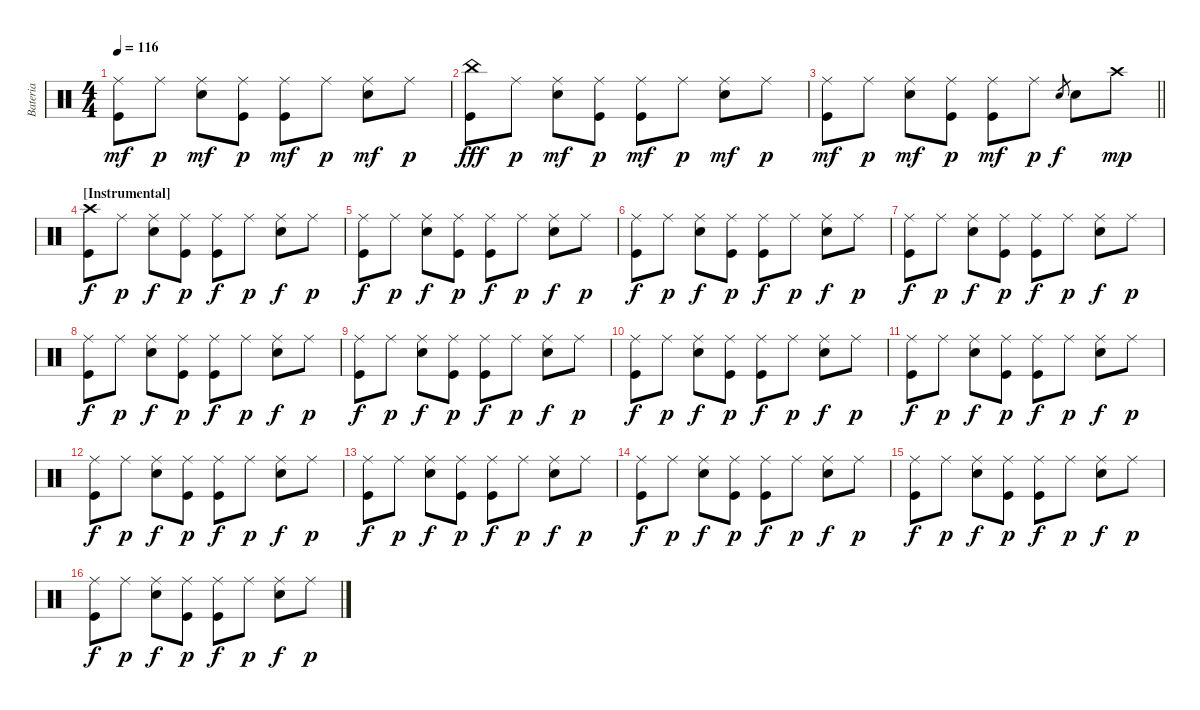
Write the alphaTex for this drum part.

\track ("Bateria" "Bateria") {instrument percussion}
\staff {score}
\articulation defaults
\ts (4 4)
\tempo 116
\clef neutral
\ks c
("Ride (middle)" "Kick (hit)").8{dy mf} "Ride (middle)".8{dy p} ("Ride (middle)" "Snare (hit) 2").8{dy mf} ("Ride (middle)" "Kick (hit)").8{dy p} ("Ride (middle)" "Kick (hit)").8{dy mf} "Ride (middle)".8{dy p} ("Ride (middle)" "Snare (hit) 2").8{dy mf} "Ride (middle)".8{dy p} |
("China (hit)" "Kick (hit)").8{dy fff} "Ride (middle)".8{dy p} ("Ride (middle)" "Snare (hit) 2").8{dy mf} ("Ride (middle)" "Kick (hit)").8{dy p} ("Ride (middle)" "Kick (hit)").8{dy mf} "Ride (middle)".8{dy p} ("Ride (middle)" "Snare (hit) 2").8{dy mf} "Ride (middle)".8{dy p} |
\barLineRight lightlight
("Ride (middle)" "Kick (hit)").8{dy mf} "Ride (middle)".8{dy p} ("Ride (middle)" "Snare (hit) 2").8{dy mf} ("Ride (middle)" "Kick (hit)").8{dy p} ("Ride (middle)" "Kick (hit)").8{dy mf} "Ride (middle)".8{dy p} "Snare (hit) 2".8{gr dy f} "Snare (hit) 2".8 "Crash high (hit)".8{dy mp} |
\section ("" "[Instrumental]")
("Crash high (hit)" "Kick (hit)").8{dy f} "Ride (middle)".8{dy p} ("Ride (middle)" "Snare (hit) 2").8{dy f} ("Ride (middle)" "Kick (hit)").8{dy p} ("Ride (middle)" "Kick (hit)").8{dy f} "Ride (middle)".8{dy p} ("Ride (middle)" "Snare (hit) 2").8{dy f} "Ride (middle)".8{dy p} |
("Ride (middle)" "Kick (hit)").8{dy f} "Ride (middle)".8{dy p} ("Ride (middle)" "Snare (hit) 2").8{dy f} ("Ride (middle)" "Kick (hit)").8{dy p} ("Ride (middle)" "Kick (hit)").8{dy f} "Ride (middle)".8{dy p} ("Ride (middle)" "Snare (hit) 2").8{dy f} "Ride (middle)".8{dy p} |
("Ride (middle)" "Kick (hit)").8{dy f} "Ride (middle)".8{dy p} ("Ride (middle)" "Snare (hit) 2").8{dy f} ("Ride (middle)" "Kick (hit)").8{dy p} ("Ride (middle)" "Kick (hit)").8{dy f} "Ride (middle)".8{dy p} ("Ride (middle)" "Snare (hit) 2").8{dy f} "Ride (middle)".8{dy p} |
("Ride (middle)" "Kick (hit)").8{dy f} "Ride (middle)".8{dy p} ("Ride (middle)" "Snare (hit) 2").8{dy f} ("Ride (middle)" "Kick (hit)").8{dy p} ("Ride (middle)" "Kick (hit)").8{dy f} "Ride (middle)".8{dy p} ("Ride (middle)" "Snare (hit) 2").8{dy f} "Ride (middle)".8{dy p} |
("Ride (middle)" "Kick (hit)").8{dy f} "Ride (middle)".8{dy p} ("Ride (middle)" "Snare (hit) 2").8{dy f} ("Ride (middle)" "Kick (hit)").8{dy p} ("Ride (middle)" "Kick (hit)").8{dy f} "Ride (middle)".8{dy p} ("Ride (middle)" "Snare (hit) 2").8{dy f} "Ride (middle)".8{dy p} |
("Ride (middle)" "Kick (hit)").8{dy f} "Ride (middle)".8{dy p} ("Ride (middle)" "Snare (hit) 2").8{dy f} ("Ride (middle)" "Kick (hit)").8{dy p} ("Ride (middle)" "Kick (hit)").8{dy f} "Ride (middle)".8{dy p} ("Ride (middle)" "Snare (hit) 2").8{dy f} "Ride (middle)".8{dy p} |
("Ride (middle)" "Kick (hit)").8{dy f} "Ride (middle)".8{dy p} ("Ride (middle)" "Snare (hit) 2").8{dy f} ("Ride (middle)" "Kick (hit)").8{dy p} ("Ride (middle)" "Kick (hit)").8{dy f} "Ride (middle)".8{dy p} ("Ride (middle)" "Snare (hit) 2").8{dy f} "Ride (middle)".8{dy p} |
("Ride (middle)" "Kick (hit)").8{dy f} "Ride (middle)".8{dy p} ("Ride (middle)" "Snare (hit) 2").8{dy f} ("Ride (middle)" "Kick (hit)").8{dy p} ("Ride (middle)" "Kick (hit)").8{dy f} "Ride (middle)".8{dy p} ("Ride (middle)" "Snare (hit) 2").8{dy f} "Ride (middle)".8{dy p} |
("Ride (middle)" "Kick (hit)").8{dy f} "Ride (middle)".8{dy p} ("Ride (middle)" "Snare (hit) 2").8{dy f} ("Ride (middle)" "Kick (hit)").8{dy p} ("Ride (middle)" "Kick (hit)").8{dy f} "Ride (middle)".8{dy p} ("Ride (middle)" "Snare (hit) 2").8{dy f} "Ride (middle)".8{dy p} |
("Ride (middle)" "Kick (hit)").8{dy f} "Ride (middle)".8{dy p} ("Ride (middle)" "Snare (hit) 2").8{dy f} ("Ride (middle)" "Kick (hit)").8{dy p} ("Ride (middle)" "Kick (hit)").8{dy f} "Ride (middle)".8{dy p} ("Ride (middle)" "Snare (hit) 2").8{dy f} "Ride (middle)".8{dy p} |
("Ride (middle)" "Kick (hit)").8{dy f} "Ride (middle)".8{dy p} ("Ride (middle)" "Snare (hit) 2").8{dy f} ("Ride (middle)" "Kick (hit)").8{dy p} ("Ride (middle)" "Kick (hit)").8{dy f} "Ride (middle)".8{dy p} ("Ride (middle)" "Snare (hit) 2").8{dy f} "Ride (middle)".8{dy p} |
("Ride (middle)" "Kick (hit)").8{dy f} "Ride (middle)".8{dy p} ("Ride (middle)" "Snare (hit) 2").8{dy f} ("Ride (middle)" "Kick (hit)").8{dy p} ("Ride (middle)" "Kick (hit)").8{dy f} "Ride (middle)".8{dy p} ("Ride (middle)" "Snare (hit) 2").8{dy f} "Ride (middle)".8{dy p} |
("Ride (middle)" "Kick (hit)").8{dy f} "Ride (middle)".8{dy p} ("Ride (middle)" "Snare (hit) 2").8{dy f} ("Ride (middle)" "Kick (hit)").8{dy p} ("Ride (middle)" "Kick (hit)").8{dy f} "Ride (middle)".8{dy p} ("Ride (middle)" "Snare (hit) 2").8{dy f} "Ride (middle)".8{dy p}
